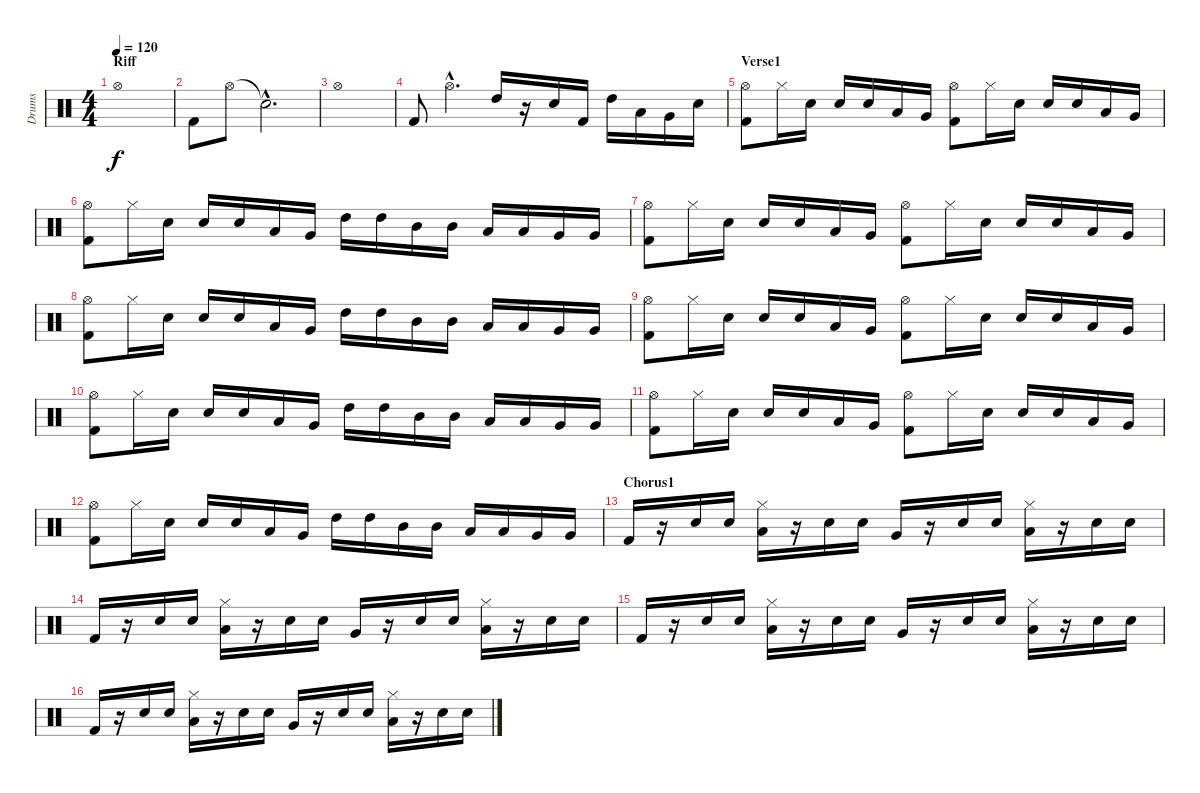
\track ("Drums" "Drums") {instrument percussion}
\staff {score}
\articulation defaults
\ts (4 4)
\section ("" "Riff")
\tempo 120
\clef neutral
\ks c "Hi-Hat (open)".1{dy f}
|
"Kick (hit) 2".8 "Hi-Hat (open)".8 "Snare (hit)"{hac t}.2{d} |
"Hi-Hat (open)".1 |
"Kick (hit) 2".8 "Hi-Hat (open)"{hac}.4{d} "High Tom (hit)".16 r.16 "Electric Snare (hit)".16 "Kick (hit) 2".16 "High Tom (hit)".16 "Low Tom (hit)".16 "Very Low Tom (hit)".16 "Electric Snare (hit)".16 |
\section ("" "Verse1")
("Hi-Hat (open)" "Kick (hit) 2").8 "Hi-Hat (closed)".16 "Electric Snare (hit)".16 "Electric Snare (hit)".16 "Electric Snare (hit)".16 "Low Floor Tom (hit)".16 "Very Low Tom (hit)".16 ("Hi-Hat (open)" "Kick (hit) 2").8 "Hi-Hat (closed)".16 "Electric Snare (hit)".16 "Electric Snare (hit)".16 "Electric Snare (hit)".16 "Low Floor Tom (hit)".16 "Very Low Tom (hit)".16 |
("Hi-Hat (open)" "Kick (hit) 2").8 "Hi-Hat (closed)".16 "Electric Snare (hit)".16 "Electric Snare (hit)".16 "Electric Snare (hit)".16 "Low Floor Tom (hit)".16 "Very Low Tom (hit)".16 "High Tom (hit)".16 "High Tom (hit)".16 "Mid Tom (hit)".16 "Mid Tom (hit)".16 "Low Tom (hit)".16 "Low Tom (hit)".16 "Very Low Tom (hit)".16 "Very Low Tom (hit)".16 |
("Hi-Hat (open)" "Kick (hit) 2").8 "Hi-Hat (closed)".16 "Electric Snare (hit)".16 "Electric Snare (hit)".16 "Electric Snare (hit)".16 "Low Floor Tom (hit)".16 "Very Low Tom (hit)".16 ("Hi-Hat (open)" "Kick (hit) 2").8 "Hi-Hat (closed)".16 "Electric Snare (hit)".16 "Electric Snare (hit)".16 "Electric Snare (hit)".16 "Low Floor Tom (hit)".16 "Very Low Tom (hit)".16 |
("Hi-Hat (open)" "Kick (hit) 2").8 "Hi-Hat (closed)".16 "Electric Snare (hit)".16 "Electric Snare (hit)".16 "Electric Snare (hit)".16 "Low Floor Tom (hit)".16 "Very Low Tom (hit)".16 "High Tom (hit)".16 "High Tom (hit)".16 "Mid Tom (hit)".16 "Mid Tom (hit)".16 "Low Tom (hit)".16 "Low Tom (hit)".16 "Very Low Tom (hit)".16 "Very Low Tom (hit)".16 |
("Hi-Hat (open)" "Kick (hit) 2").8 "Hi-Hat (closed)".16 "Electric Snare (hit)".16 "Electric Snare (hit)".16 "Electric Snare (hit)".16 "Low Floor Tom (hit)".16 "Very Low Tom (hit)".16 ("Hi-Hat (open)" "Kick (hit) 2").8 "Hi-Hat (closed)".16 "Electric Snare (hit)".16 "Electric Snare (hit)".16 "Electric Snare (hit)".16 "Low Floor Tom (hit)".16 "Very Low Tom (hit)".16 |
("Hi-Hat (open)" "Kick (hit) 2").8 "Hi-Hat (closed)".16 "Electric Snare (hit)".16 "Electric Snare (hit)".16 "Electric Snare (hit)".16 "Low Floor Tom (hit)".16 "Very Low Tom (hit)".16 "High Tom (hit)".16 "High Tom (hit)".16 "Mid Tom (hit)".16 "Mid Tom (hit)".16 "Low Tom (hit)".16 "Low Tom (hit)".16 "Very Low Tom (hit)".16 "Very Low Tom (hit)".16 |
("Hi-Hat (open)" "Kick (hit) 2").8 "Hi-Hat (closed)".16 "Electric Snare (hit)".16 "Electric Snare (hit)".16 "Electric Snare (hit)".16 "Low Floor Tom (hit)".16 "Very Low Tom (hit)".16 ("Hi-Hat (open)" "Kick (hit) 2").8 "Hi-Hat (closed)".16 "Electric Snare (hit)".16 "Electric Snare (hit)".16 "Electric Snare (hit)".16 "Low Floor Tom (hit)".16 "Very Low Tom (hit)".16 |
("Hi-Hat (open)" "Kick (hit) 2").8 "Hi-Hat (closed)".16 "Electric Snare (hit)".16 "Electric Snare (hit)".16 "Electric Snare (hit)".16 "Low Floor Tom (hit)".16 "Very Low Tom (hit)".16 "High Tom (hit)".16 "High Tom (hit)".16 "Mid Tom (hit)".16 "Mid Tom (hit)".16 "Low Tom (hit)".16 "Low Tom (hit)".16 "Very Low Tom (hit)".16 "Very Low Tom (hit)".16 |
\section ("" "Chorus1")
"Kick (hit) 2".16 r.16 "Electric Snare (hit)".16 "Electric Snare (hit)".16 ("Hi-Hat (closed)" "Low Floor Tom (hit)").16 r.16 "Electric Snare (hit)".16 "Electric Snare (hit)".16 "Very Low Tom (hit)".16 r.16 "Electric Snare (hit)".16 "Electric Snare (hit)".16 ("Hi-Hat (closed)" "Low Floor Tom (hit)").16 r.16 "Electric Snare (hit)".16 "Electric Snare (hit)".16 |
"Kick (hit) 2".16 r.16 "Electric Snare (hit)".16 "Electric Snare (hit)".16 ("Hi-Hat (closed)" "Low Floor Tom (hit)").16 r.16 "Electric Snare (hit)".16 "Electric Snare (hit)".16 "Very Low Tom (hit)".16 r.16 "Electric Snare (hit)".16 "Electric Snare (hit)".16 ("Hi-Hat (closed)" "Low Floor Tom (hit)").16 r.16 "Electric Snare (hit)".16 "Electric Snare (hit)".16 |
"Kick (hit) 2".16 r.16 "Electric Snare (hit)".16 "Electric Snare (hit)".16 ("Hi-Hat (closed)" "Low Floor Tom (hit)").16 r.16 "Electric Snare (hit)".16 "Electric Snare (hit)".16 "Very Low Tom (hit)".16 r.16 "Electric Snare (hit)".16 "Electric Snare (hit)".16 ("Hi-Hat (closed)" "Low Floor Tom (hit)").16 r.16 "Electric Snare (hit)".16 "Electric Snare (hit)".16 |
"Kick (hit) 2".16 r.16 "Electric Snare (hit)".16 "Electric Snare (hit)".16 ("Hi-Hat (closed)" "Low Floor Tom (hit)").16 r.16 "Electric Snare (hit)".16 "Electric Snare (hit)".16 "Very Low Tom (hit)".16 r.16 "Electric Snare (hit)".16 "Electric Snare (hit)".16 ("Hi-Hat (closed)" "Low Floor Tom (hit)").16 r.16 "Electric Snare (hit)".16 "Electric Snare (hit)".16
